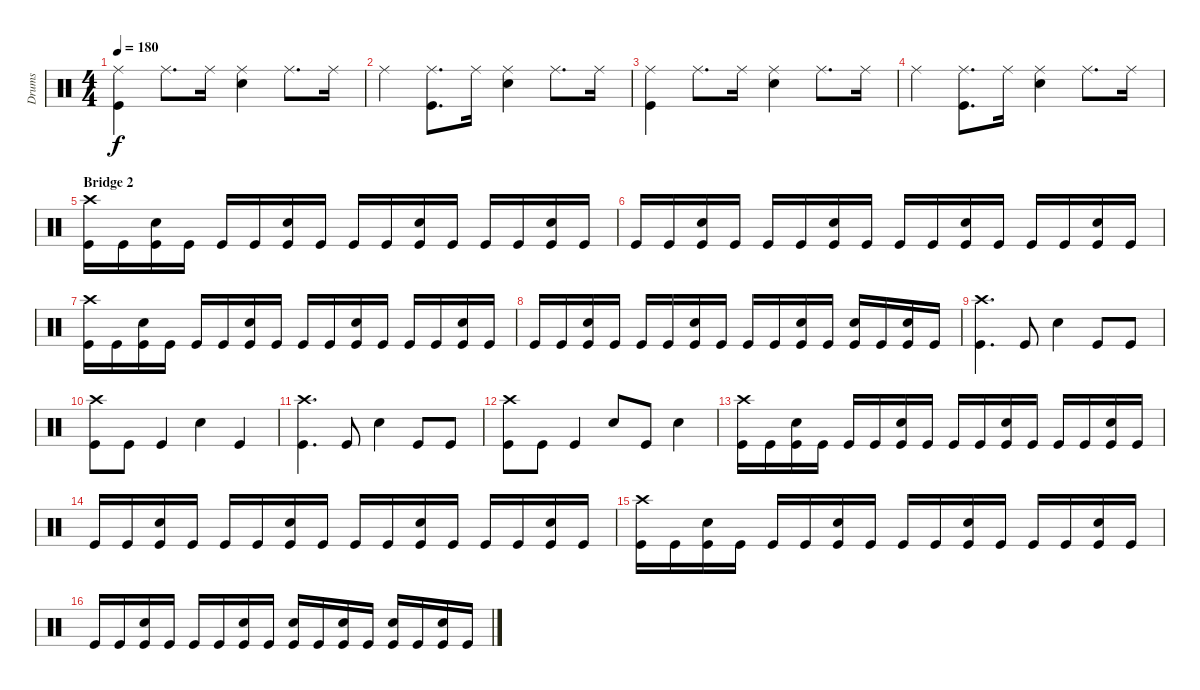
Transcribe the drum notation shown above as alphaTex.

\track ("Drums" "Drums") {instrument percussion}
\staff {score}
\articulation defaults
\ts (4 4)
\tempo 180
\clef neutral
\ks c
("Ride (middle)" "Kick (hit)").4{dy f} "Ride (middle)".8{d} "Ride (middle)".16 ("Ride (middle)" "Snare (hit) 2").4 "Ride (middle)".8{d} "Ride (middle)".16 |
"Ride (middle)".4 ("Ride (middle)" "Kick (hit)").8{d} "Ride (middle)".16 ("Ride (middle)" "Snare (hit) 2").4 "Ride (middle)".8{d} "Ride (middle)".16 |
("Ride (middle)" "Kick (hit)").4 "Ride (middle)".8{d} "Ride (middle)".16 ("Ride (middle)" "Snare (hit) 2").4 "Ride (middle)".8{d} "Ride (middle)".16 |
"Ride (middle)".4 ("Ride (middle)" "Kick (hit)").8{d} "Ride (middle)".16 ("Ride (middle)" "Snare (hit) 2").4 "Ride (middle)".8{d} "Ride (middle)".16 |
\section ("" "Bridge 2")
("Crash high (hit)" "Kick (hit)").16 "Kick (hit)".16 ("Snare (hit) 2" "Kick (hit)").16 "Kick (hit)".16 "Kick (hit)".16 "Kick (hit)".16 ("Snare (hit) 2" "Kick (hit)").16 "Kick (hit)".16 "Kick (hit)".16 "Kick (hit)".16 ("Snare (hit) 2" "Kick (hit)").16 "Kick (hit)".16 "Kick (hit)".16 "Kick (hit)".16 ("Snare (hit) 2" "Kick (hit)").16 "Kick (hit)".16 |
"Kick (hit)".16 "Kick (hit)".16 ("Snare (hit) 2" "Kick (hit)").16 "Kick (hit)".16 "Kick (hit)".16 "Kick (hit)".16 ("Snare (hit) 2" "Kick (hit)").16 "Kick (hit)".16 "Kick (hit)".16 "Kick (hit)".16 ("Snare (hit) 2" "Kick (hit)").16 "Kick (hit)".16 "Kick (hit)".16 "Kick (hit)".16 ("Snare (hit) 2" "Kick (hit)").16 "Kick (hit)".16 |
("Crash high (hit)" "Kick (hit)").16 "Kick (hit)".16 ("Snare (hit) 2" "Kick (hit)").16 "Kick (hit)".16 "Kick (hit)".16 "Kick (hit)".16 ("Snare (hit) 2" "Kick (hit)").16 "Kick (hit)".16 "Kick (hit)".16 "Kick (hit)".16 ("Snare (hit) 2" "Kick (hit)").16 "Kick (hit)".16 "Kick (hit)".16 "Kick (hit)".16 ("Snare (hit) 2" "Kick (hit)").16 "Kick (hit)".16 |
"Kick (hit)".16 "Kick (hit)".16 ("Snare (hit) 2" "Kick (hit)").16 "Kick (hit)".16 "Kick (hit)".16 "Kick (hit)".16 ("Snare (hit) 2" "Kick (hit)").16 "Kick (hit)".16 "Kick (hit)".16 "Kick (hit)".16 ("Snare (hit) 2" "Kick (hit)").16 "Kick (hit)".16 ("Snare (hit) 2" "Kick (hit)").16 "Kick (hit)".16 ("Snare (hit) 2" "Kick (hit)").16 "Kick (hit)".16 |
("Crash high (hit)" "Kick (hit)").4{d} "Kick (hit)".8 "Snare (hit) 2".4 "Kick (hit)".8 "Kick (hit)".8 |
("Crash high (hit)" "Kick (hit)").8 "Kick (hit)".8 "Kick (hit)".4 "Snare (hit) 2".4 "Kick (hit)".4 |
("Crash high (hit)" "Kick (hit)").4{d} "Kick (hit)".8 "Snare (hit) 2".4 "Kick (hit)".8 "Kick (hit)".8 |
("Crash high (hit)" "Kick (hit)").8 "Kick (hit)".8 "Kick (hit)".4 "Snare (hit) 2".8 "Kick (hit)".8 "Snare (hit) 2".4 |
("Crash high (hit)" "Kick (hit)").16 "Kick (hit)".16 ("Snare (hit) 2" "Kick (hit)").16 "Kick (hit)".16 "Kick (hit)".16 "Kick (hit)".16 ("Snare (hit) 2" "Kick (hit)").16 "Kick (hit)".16 "Kick (hit)".16 "Kick (hit)".16 ("Snare (hit) 2" "Kick (hit)").16 "Kick (hit)".16 "Kick (hit)".16 "Kick (hit)".16 ("Snare (hit) 2" "Kick (hit)").16 "Kick (hit)".16 |
"Kick (hit)".16 "Kick (hit)".16 ("Snare (hit) 2" "Kick (hit)").16 "Kick (hit)".16 "Kick (hit)".16 "Kick (hit)".16 ("Snare (hit) 2" "Kick (hit)").16 "Kick (hit)".16 "Kick (hit)".16 "Kick (hit)".16 ("Snare (hit) 2" "Kick (hit)").16 "Kick (hit)".16 "Kick (hit)".16 "Kick (hit)".16 ("Snare (hit) 2" "Kick (hit)").16 "Kick (hit)".16 |
("Crash high (hit)" "Kick (hit)").16 "Kick (hit)".16 ("Snare (hit) 2" "Kick (hit)").16 "Kick (hit)".16 "Kick (hit)".16 "Kick (hit)".16 ("Snare (hit) 2" "Kick (hit)").16 "Kick (hit)".16 "Kick (hit)".16 "Kick (hit)".16 ("Snare (hit) 2" "Kick (hit)").16 "Kick (hit)".16 "Kick (hit)".16 "Kick (hit)".16 ("Snare (hit) 2" "Kick (hit)").16 "Kick (hit)".16 |
"Kick (hit)".16 "Kick (hit)".16 ("Snare (hit) 2" "Kick (hit)").16 "Kick (hit)".16 "Kick (hit)".16 "Kick (hit)".16 ("Snare (hit) 2" "Kick (hit)").16 "Kick (hit)".16 ("Snare (hit) 2" "Kick (hit)").16 "Kick (hit)".16 ("Snare (hit) 2" "Kick (hit)").16 "Kick (hit)".16 ("Snare (hit) 2" "Kick (hit)").16 "Kick (hit)".16 ("Snare (hit) 2" "Kick (hit)").16 "Kick (hit)".16
